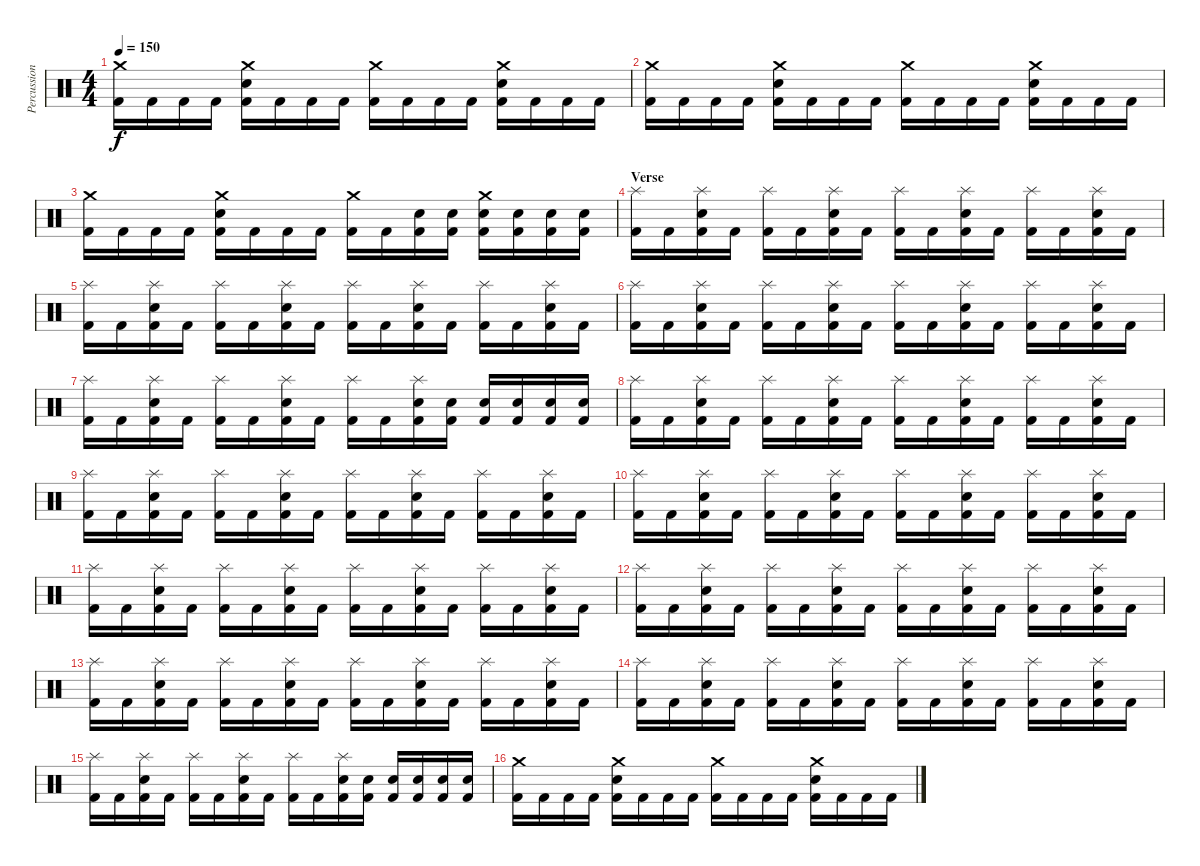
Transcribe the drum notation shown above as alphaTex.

\track ("Percussion" "Percussion") {instrument percussion}
\staff {score}
\articulation defaults
\ts (4 4)
\tempo 150
\clef neutral
\ks c
("Crash medium (hit)" "Kick (hit) 2").16{dy f} "Kick (hit) 2".16 "Kick (hit) 2".16 "Kick (hit) 2".16 ("Crash medium (hit)" "Electric Snare (hit)" "Kick (hit) 2").16 "Kick (hit) 2".16 "Kick (hit) 2".16 "Kick (hit) 2".16 ("Crash medium (hit)" "Kick (hit) 2").16 "Kick (hit) 2".16 "Kick (hit) 2".16 "Kick (hit) 2".16 ("Crash medium (hit)" "Electric Snare (hit)" "Kick (hit) 2").16 "Kick (hit) 2".16 "Kick (hit) 2".16 "Kick (hit) 2".16 |
("Crash medium (hit)" "Kick (hit) 2").16 "Kick (hit) 2".16 "Kick (hit) 2".16 "Kick (hit) 2".16 ("Crash medium (hit)" "Electric Snare (hit)" "Kick (hit) 2").16 "Kick (hit) 2".16 "Kick (hit) 2".16 "Kick (hit) 2".16 ("Crash medium (hit)" "Kick (hit) 2").16 "Kick (hit) 2".16 "Kick (hit) 2".16 "Kick (hit) 2".16 ("Crash medium (hit)" "Electric Snare (hit)" "Kick (hit) 2").16 "Kick (hit) 2".16 "Kick (hit) 2".16 "Kick (hit) 2".16 |
("Crash medium (hit)" "Kick (hit) 2").16 "Kick (hit) 2".16 "Kick (hit) 2".16 "Kick (hit) 2".16 ("Crash medium (hit)" "Electric Snare (hit)" "Kick (hit) 2").16 "Kick (hit) 2".16 "Kick (hit) 2".16 "Kick (hit) 2".16 ("Crash medium (hit)" "Kick (hit) 2").16 "Kick (hit) 2".16 ("Electric Snare (hit)" "Kick (hit) 2").16 ("Electric Snare (hit)" "Kick (hit) 2").16 ("Crash medium (hit)" "Electric Snare (hit)" "Kick (hit) 2").16 ("Electric Snare (hit)" "Kick (hit) 2").16 ("Electric Snare (hit)" "Kick (hit) 2").16 ("Electric Snare (hit)" "Kick (hit) 2").16 |
\section ("" "Verse")
("Splash (hit)" "Kick (hit) 2").16 "Kick (hit) 2".16 ("Splash (hit)" "Electric Snare (hit)" "Kick (hit) 2").16 "Kick (hit) 2".16 ("Splash (hit)" "Kick (hit) 2").16 "Kick (hit) 2".16 ("Splash (hit)" "Electric Snare (hit)" "Kick (hit) 2").16 "Kick (hit) 2".16 ("Splash (hit)" "Kick (hit) 2").16 "Kick (hit) 2".16 ("Splash (hit)" "Electric Snare (hit)" "Kick (hit) 2").16 "Kick (hit) 2".16 ("Splash (hit)" "Kick (hit) 2").16 "Kick (hit) 2".16 ("Splash (hit)" "Electric Snare (hit)" "Kick (hit) 2").16 "Kick (hit) 2".16 |
("Splash (hit)" "Kick (hit) 2").16 "Kick (hit) 2".16 ("Splash (hit)" "Electric Snare (hit)" "Kick (hit) 2").16 "Kick (hit) 2".16 ("Splash (hit)" "Kick (hit) 2").16 "Kick (hit) 2".16 ("Splash (hit)" "Electric Snare (hit)" "Kick (hit) 2").16 "Kick (hit) 2".16 ("Splash (hit)" "Kick (hit) 2").16 "Kick (hit) 2".16 ("Splash (hit)" "Electric Snare (hit)" "Kick (hit) 2").16 "Kick (hit) 2".16 ("Splash (hit)" "Kick (hit) 2").16 "Kick (hit) 2".16 ("Splash (hit)" "Electric Snare (hit)" "Kick (hit) 2").16 "Kick (hit) 2".16 |
("Splash (hit)" "Kick (hit) 2").16 "Kick (hit) 2".16 ("Splash (hit)" "Electric Snare (hit)" "Kick (hit) 2").16 "Kick (hit) 2".16 ("Splash (hit)" "Kick (hit) 2").16 "Kick (hit) 2".16 ("Splash (hit)" "Electric Snare (hit)" "Kick (hit) 2").16 "Kick (hit) 2".16 ("Splash (hit)" "Kick (hit) 2").16 "Kick (hit) 2".16 ("Splash (hit)" "Electric Snare (hit)" "Kick (hit) 2").16 "Kick (hit) 2".16 ("Splash (hit)" "Kick (hit) 2").16 "Kick (hit) 2".16 ("Splash (hit)" "Electric Snare (hit)" "Kick (hit) 2").16 "Kick (hit) 2".16 |
("Splash (hit)" "Kick (hit) 2").16 "Kick (hit) 2".16 ("Splash (hit)" "Electric Snare (hit)" "Kick (hit) 2").16 "Kick (hit) 2".16 ("Splash (hit)" "Kick (hit) 2").16 "Kick (hit) 2".16 ("Splash (hit)" "Electric Snare (hit)" "Kick (hit) 2").16 "Kick (hit) 2".16 ("Splash (hit)" "Kick (hit) 2").16 "Kick (hit) 2".16 ("Splash (hit)" "Electric Snare (hit)" "Kick (hit) 2").16 ("Electric Snare (hit)" "Kick (hit) 2").16 ("Electric Snare (hit)" "Kick (hit) 2").16 ("Electric Snare (hit)" "Kick (hit) 2").16 ("Electric Snare (hit)" "Kick (hit) 2").16 ("Electric Snare (hit)" "Kick (hit) 2").16 |
("Splash (hit)" "Kick (hit) 2").16 "Kick (hit) 2".16 ("Splash (hit)" "Electric Snare (hit)" "Kick (hit) 2").16 "Kick (hit) 2".16 ("Splash (hit)" "Kick (hit) 2").16 "Kick (hit) 2".16 ("Splash (hit)" "Electric Snare (hit)" "Kick (hit) 2").16 "Kick (hit) 2".16 ("Splash (hit)" "Kick (hit) 2").16 "Kick (hit) 2".16 ("Splash (hit)" "Electric Snare (hit)" "Kick (hit) 2").16 "Kick (hit) 2".16 ("Splash (hit)" "Kick (hit) 2").16 "Kick (hit) 2".16 ("Splash (hit)" "Electric Snare (hit)" "Kick (hit) 2").16 "Kick (hit) 2".16 |
("Splash (hit)" "Kick (hit) 2").16 "Kick (hit) 2".16 ("Splash (hit)" "Electric Snare (hit)" "Kick (hit) 2").16 "Kick (hit) 2".16 ("Splash (hit)" "Kick (hit) 2").16 "Kick (hit) 2".16 ("Splash (hit)" "Electric Snare (hit)" "Kick (hit) 2").16 "Kick (hit) 2".16 ("Splash (hit)" "Kick (hit) 2").16 "Kick (hit) 2".16 ("Splash (hit)" "Electric Snare (hit)" "Kick (hit) 2").16 "Kick (hit) 2".16 ("Splash (hit)" "Kick (hit) 2").16 "Kick (hit) 2".16 ("Splash (hit)" "Electric Snare (hit)" "Kick (hit) 2").16 "Kick (hit) 2".16 |
("Splash (hit)" "Kick (hit) 2").16 "Kick (hit) 2".16 ("Splash (hit)" "Electric Snare (hit)" "Kick (hit) 2").16 "Kick (hit) 2".16 ("Splash (hit)" "Kick (hit) 2").16 "Kick (hit) 2".16 ("Splash (hit)" "Electric Snare (hit)" "Kick (hit) 2").16 "Kick (hit) 2".16 ("Splash (hit)" "Kick (hit) 2").16 "Kick (hit) 2".16 ("Splash (hit)" "Electric Snare (hit)" "Kick (hit) 2").16 "Kick (hit) 2".16 ("Splash (hit)" "Kick (hit) 2").16 "Kick (hit) 2".16 ("Splash (hit)" "Electric Snare (hit)" "Kick (hit) 2").16 "Kick (hit) 2".16 |
("Splash (hit)" "Kick (hit) 2").16 "Kick (hit) 2".16 ("Splash (hit)" "Electric Snare (hit)" "Kick (hit) 2").16 "Kick (hit) 2".16 ("Splash (hit)" "Kick (hit) 2").16 "Kick (hit) 2".16 ("Splash (hit)" "Electric Snare (hit)" "Kick (hit) 2").16 "Kick (hit) 2".16 ("Splash (hit)" "Kick (hit) 2").16 "Kick (hit) 2".16 ("Splash (hit)" "Electric Snare (hit)" "Kick (hit) 2").16 "Kick (hit) 2".16 ("Splash (hit)" "Kick (hit) 2").16 "Kick (hit) 2".16 ("Splash (hit)" "Electric Snare (hit)" "Kick (hit) 2").16 "Kick (hit) 2".16 |
("Splash (hit)" "Kick (hit) 2").16 "Kick (hit) 2".16 ("Splash (hit)" "Electric Snare (hit)" "Kick (hit) 2").16 "Kick (hit) 2".16 ("Splash (hit)" "Kick (hit) 2").16 "Kick (hit) 2".16 ("Splash (hit)" "Electric Snare (hit)" "Kick (hit) 2").16 "Kick (hit) 2".16 ("Splash (hit)" "Kick (hit) 2").16 "Kick (hit) 2".16 ("Splash (hit)" "Electric Snare (hit)" "Kick (hit) 2").16 "Kick (hit) 2".16 ("Splash (hit)" "Kick (hit) 2").16 "Kick (hit) 2".16 ("Splash (hit)" "Electric Snare (hit)" "Kick (hit) 2").16 "Kick (hit) 2".16 |
("Splash (hit)" "Kick (hit) 2").16 "Kick (hit) 2".16 ("Splash (hit)" "Electric Snare (hit)" "Kick (hit) 2").16 "Kick (hit) 2".16 ("Splash (hit)" "Kick (hit) 2").16 "Kick (hit) 2".16 ("Splash (hit)" "Electric Snare (hit)" "Kick (hit) 2").16 "Kick (hit) 2".16 ("Splash (hit)" "Kick (hit) 2").16 "Kick (hit) 2".16 ("Splash (hit)" "Electric Snare (hit)" "Kick (hit) 2").16 "Kick (hit) 2".16 ("Splash (hit)" "Kick (hit) 2").16 "Kick (hit) 2".16 ("Splash (hit)" "Electric Snare (hit)" "Kick (hit) 2").16 "Kick (hit) 2".16 |
("Splash (hit)" "Kick (hit) 2").16 "Kick (hit) 2".16 ("Splash (hit)" "Electric Snare (hit)" "Kick (hit) 2").16 "Kick (hit) 2".16 ("Splash (hit)" "Kick (hit) 2").16 "Kick (hit) 2".16 ("Splash (hit)" "Electric Snare (hit)" "Kick (hit) 2").16 "Kick (hit) 2".16 ("Splash (hit)" "Kick (hit) 2").16 "Kick (hit) 2".16 ("Splash (hit)" "Electric Snare (hit)" "Kick (hit) 2").16 "Kick (hit) 2".16 ("Splash (hit)" "Kick (hit) 2").16 "Kick (hit) 2".16 ("Splash (hit)" "Electric Snare (hit)" "Kick (hit) 2").16 "Kick (hit) 2".16 |
("Splash (hit)" "Kick (hit) 2").16 "Kick (hit) 2".16 ("Splash (hit)" "Electric Snare (hit)" "Kick (hit) 2").16 "Kick (hit) 2".16 ("Splash (hit)" "Kick (hit) 2").16 "Kick (hit) 2".16 ("Splash (hit)" "Electric Snare (hit)" "Kick (hit) 2").16 "Kick (hit) 2".16 ("Splash (hit)" "Kick (hit) 2").16 "Kick (hit) 2".16 ("Splash (hit)" "Electric Snare (hit)" "Kick (hit) 2").16 ("Electric Snare (hit)" "Kick (hit) 2").16 ("Electric Snare (hit)" "Kick (hit) 2").16 ("Electric Snare (hit)" "Kick (hit) 2").16 ("Electric Snare (hit)" "Kick (hit) 2").16 ("Electric Snare (hit)" "Kick (hit) 2").16 |
("Crash medium (hit)" "Kick (hit) 2").16 "Kick (hit) 2".16 "Kick (hit) 2".16 "Kick (hit) 2".16 ("Crash medium (hit)" "Electric Snare (hit)" "Kick (hit) 2").16 "Kick (hit) 2".16 "Kick (hit) 2".16 "Kick (hit) 2".16 ("Crash medium (hit)" "Kick (hit) 2").16 "Kick (hit) 2".16 "Kick (hit) 2".16 "Kick (hit) 2".16 ("Crash medium (hit)" "Electric Snare (hit)" "Kick (hit) 2").16 "Kick (hit) 2".16 "Kick (hit) 2".16 "Kick (hit) 2".16
